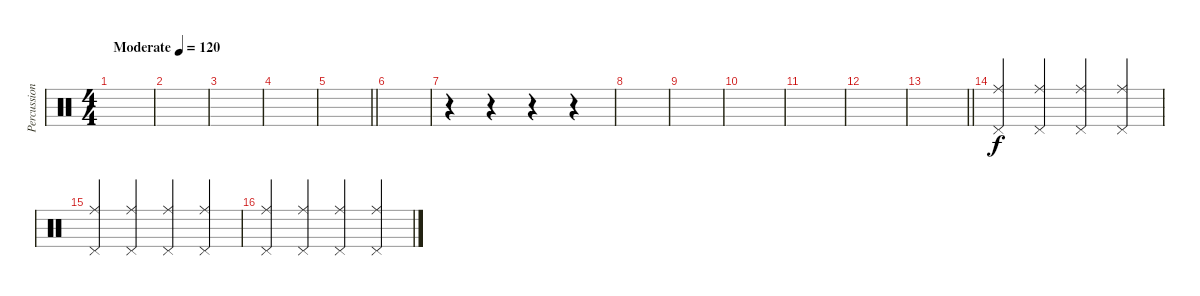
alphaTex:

\track ("Percussion" "Percussion") {instrument percussion}
\staff {score}
\articulation defaults
\ts (4 4)
\tempo (120 "Moderate")
\clef neutral
\ks c
|
|
|
|
\barLineRight lightlight
|
|
r.4 r.4 r.4 r.4 |
|
|
|
|
|
\barLineRight lightlight
|
("Ride (middle)" "Pedal Hi-Hat (hit)").4 ("Ride (middle)" "Pedal Hi-Hat (hit)").4 ("Ride (middle)" "Pedal Hi-Hat (hit)").4 ("Ride (middle)" "Pedal Hi-Hat (hit)").4 |
("Ride (middle)" "Pedal Hi-Hat (hit)").4 ("Ride (middle)" "Pedal Hi-Hat (hit)").4 ("Ride (middle)" "Pedal Hi-Hat (hit)").4 ("Ride (middle)" "Pedal Hi-Hat (hit)").4 |
("Ride (middle)" "Pedal Hi-Hat (hit)").4 ("Ride (middle)" "Pedal Hi-Hat (hit)").4 ("Ride (middle)" "Pedal Hi-Hat (hit)").4 ("Ride (middle)" "Pedal Hi-Hat (hit)").4
